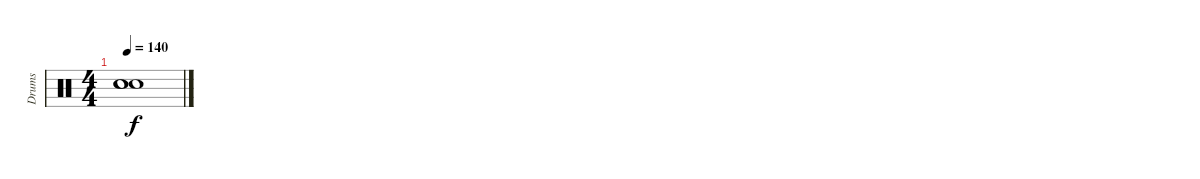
\track ("Drums" "Drums") {instrument percussion}
\staff {score}
\articulation defaults
\ts (4 4)
\tempo 140
\clef neutral
\ks c
("Snare (hit)"{t} "Snare (hit)"{t} "Snare (hit)"{t}).1{dy f}
